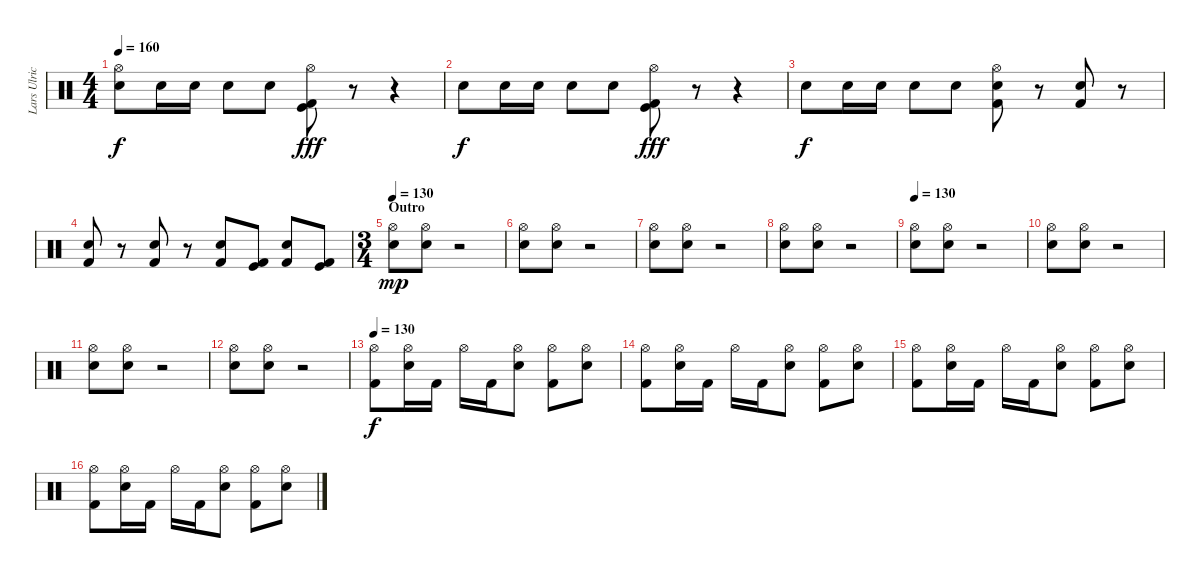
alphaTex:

\track ("Lars Ulrich" "Lars Ulric") {instrument percussion}
\staff {score}
\articulation defaults
\ts (4 4)
\tempo 160
\clef neutral
\ks c
("Hi-Hat (open)" "Electric Snare (hit)").8{dy f} "Electric Snare (hit)".16 "Electric Snare (hit)".16 "Electric Snare (hit)".8 "Electric Snare (hit)".8 ("Hi-Hat (open)" "Kick (hit)" "Kick (hit) 2").8{dy fff} r.8 r.4 |
"Electric Snare (hit)".8{dy f} "Electric Snare (hit)".16 "Electric Snare (hit)".16 "Electric Snare (hit)".8 "Electric Snare (hit)".8 ("Hi-Hat (open)" "Kick (hit)" "Kick (hit) 2").8{dy fff} r.8 r.4 |
"Electric Snare (hit)".8{dy f} "Electric Snare (hit)".16 "Electric Snare (hit)".16 "Electric Snare (hit)".8 "Electric Snare (hit)".8 ("Hi-Hat (open)" "Electric Snare (hit)" "Kick (hit) 2").8 r.8 ("Electric Snare (hit)" "Kick (hit) 2").8 r.8 |
("Electric Snare (hit)" "Kick (hit) 2").8 r.8 ("Electric Snare (hit)" "Kick (hit) 2").8 r.8 ("Electric Snare (hit)" "Kick (hit) 2").8 ("Kick (hit) 2" "Kick (hit)").8 ("Electric Snare (hit)" "Kick (hit) 2").8 ("Kick (hit) 2" "Kick (hit)").8 |
\ts (3 4)
\section ("" "Outro")
\tempo 130
("Hi-Hat (open)" "Electric Snare (hit)").8{dy mp} ("Hi-Hat (open)" "Electric Snare (hit)").8 r.2 |
("Hi-Hat (open)" "Electric Snare (hit)").8 ("Hi-Hat (open)" "Electric Snare (hit)").8 r.2 |
("Hi-Hat (open)" "Electric Snare (hit)").8 ("Hi-Hat (open)" "Electric Snare (hit)").8 r.2 |
("Hi-Hat (open)" "Electric Snare (hit)").8 ("Hi-Hat (open)" "Electric Snare (hit)").8 r.2 |
\tempo 130
("Hi-Hat (open)" "Electric Snare (hit)").8 ("Hi-Hat (open)" "Electric Snare (hit)").8 r.2 |
("Hi-Hat (open)" "Electric Snare (hit)").8 ("Hi-Hat (open)" "Electric Snare (hit)").8 r.2 |
("Hi-Hat (open)" "Electric Snare (hit)").8 ("Hi-Hat (open)" "Electric Snare (hit)").8 r.2 |
("Hi-Hat (open)" "Electric Snare (hit)").8 ("Hi-Hat (open)" "Electric Snare (hit)").8 r.2 |
\tempo 130
("Hi-Hat (open)" "Kick (hit) 2").8{dy f} ("Hi-Hat (open)" "Electric Snare (hit)").16 "Kick (hit) 2".16 "Hi-Hat (open)".16 "Kick (hit) 2".16 ("Hi-Hat (open)" "Electric Snare (hit)").8 ("Hi-Hat (open)" "Kick (hit) 2").8 ("Hi-Hat (open)" "Electric Snare (hit)").8 |
("Hi-Hat (open)" "Kick (hit) 2").8 ("Hi-Hat (open)" "Electric Snare (hit)").16 "Kick (hit) 2".16 "Hi-Hat (open)".16 "Kick (hit) 2".16 ("Hi-Hat (open)" "Electric Snare (hit)").8 ("Hi-Hat (open)" "Kick (hit) 2").8 ("Hi-Hat (open)" "Electric Snare (hit)").8 |
("Hi-Hat (open)" "Kick (hit) 2").8 ("Hi-Hat (open)" "Electric Snare (hit)").16 "Kick (hit) 2".16 "Hi-Hat (open)".16 "Kick (hit) 2".16 ("Hi-Hat (open)" "Electric Snare (hit)").8 ("Hi-Hat (open)" "Kick (hit) 2").8 ("Hi-Hat (open)" "Electric Snare (hit)").8 |
("Hi-Hat (open)" "Kick (hit) 2").8 ("Hi-Hat (open)" "Electric Snare (hit)").16 "Kick (hit) 2".16 "Hi-Hat (open)".16 "Kick (hit) 2".16 ("Hi-Hat (open)" "Electric Snare (hit)").8 ("Hi-Hat (open)" "Kick (hit) 2").8 ("Hi-Hat (open)" "Electric Snare (hit)").8
